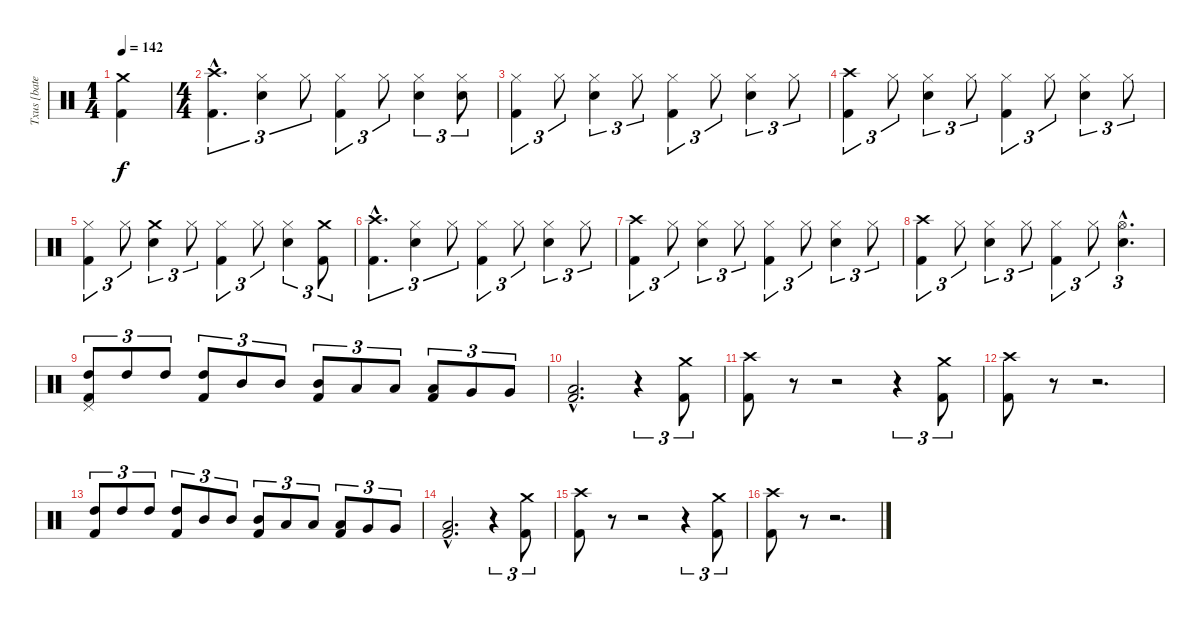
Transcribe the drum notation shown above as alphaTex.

\track ("Txus [bateria]" "Txus [bate") {instrument percussion}
\staff {score}
\articulation defaults
\ts (1 4)
\tempo 142
\clef neutral
\ks c
("Crash medium (hit)" "Kick (hit) 2").4{dy f} |
\ts (4 4)
("Crash high (hit)"{hac} "Kick (hit) 2"{hac}).4{d tu (3 2)} ("Hi-Hat (closed)" "Snare (hit) 2").4{tu (3 2)} "Hi-Hat (closed)".8{tu (3 2)} ("Hi-Hat (closed)" "Kick (hit) 2").4{tu (3 2)} "Hi-Hat (closed)".8{tu (3 2)} ("Hi-Hat (closed)" "Snare (hit) 2").4{tu (3 2)} ("Hi-Hat (closed)" "Snare (hit) 2").8{tu (3 2)} |
("Hi-Hat (closed)" "Kick (hit) 2").4{tu (3 2)} "Hi-Hat (closed)".8{tu (3 2)} ("Hi-Hat (closed)" "Snare (hit) 2").4{tu (3 2)} "Hi-Hat (closed)".8{tu (3 2)} ("Hi-Hat (closed)" "Kick (hit) 2").4{tu (3 2)} "Hi-Hat (closed)".8{tu (3 2)} ("Hi-Hat (closed)" "Snare (hit) 2").4{tu (3 2)} "Hi-Hat (closed)".8{tu (3 2)} |
("Crash high (hit)" "Kick (hit) 2").4{tu (3 2)} "Hi-Hat (closed)".8{tu (3 2)} ("Hi-Hat (closed)" "Snare (hit) 2").4{tu (3 2)} "Hi-Hat (closed)".8{tu (3 2)} ("Hi-Hat (closed)" "Kick (hit) 2").4{tu (3 2)} "Hi-Hat (closed)".8{tu (3 2)} ("Hi-Hat (closed)" "Snare (hit) 2").4{tu (3 2)} "Hi-Hat (closed)".8{tu (3 2)} |
("Hi-Hat (closed)" "Kick (hit) 2").4{tu (3 2)} "Hi-Hat (closed)".8{tu (3 2)} ("Crash medium (hit)" "Snare (hit) 2").4{tu (3 2)} "Hi-Hat (closed)".8{tu (3 2)} ("Hi-Hat (closed)" "Kick (hit) 2").4{tu (3 2)} "Hi-Hat (closed)".8{tu (3 2)} ("Hi-Hat (closed)" "Snare (hit) 2").4{tu (3 2)} ("Crash medium (hit)" "Kick (hit) 2").8{tu (3 2)} |
("Crash high (hit)"{hac} "Kick (hit) 2"{hac}).4{d tu (3 2)} ("Hi-Hat (closed)" "Snare (hit) 2").4{tu (3 2)} "Hi-Hat (closed)".8{tu (3 2)} ("Hi-Hat (closed)" "Kick (hit) 2").4{tu (3 2)} "Hi-Hat (closed)".8{tu (3 2)} ("Hi-Hat (closed)" "Snare (hit) 2").4{tu (3 2)} "Hi-Hat (closed)".8{tu (3 2)} |
("Crash high (hit)" "Kick (hit) 2").4{tu (3 2)} "Hi-Hat (closed)".8{tu (3 2)} ("Hi-Hat (closed)" "Snare (hit) 2").4{tu (3 2)} "Hi-Hat (closed)".8{tu (3 2)} ("Hi-Hat (closed)" "Kick (hit) 2").4{tu (3 2)} "Hi-Hat (closed)".8{tu (3 2)} ("Hi-Hat (closed)" "Snare (hit) 2").4{tu (3 2)} "Hi-Hat (closed)".8{tu (3 2)} |
("Crash high (hit)" "Kick (hit) 2").4{tu (3 2)} "Hi-Hat (closed)".8{tu (3 2)} ("Hi-Hat (closed)" "Snare (hit) 2").4{tu (3 2)} "Hi-Hat (closed)".8{tu (3 2)} ("Hi-Hat (closed)" "Kick (hit) 2").4{tu (3 2)} "Hi-Hat (closed)".8{tu (3 2)} ("Hi-Hat (open)"{hac} "Snare (hit) 2"{hac}).4{d tu (3 2)} |
("Pedal Hi-Hat (hit)" "High Tom (hit)" "Kick (hit) 2").8{tu (3 2)} "High Tom (hit)".8{tu (3 2)} "High Tom (hit)".8{tu (3 2)} ("High Tom (hit)" "Kick (hit) 2").8{tu (3 2)} "Mid Tom (hit)".8{tu (3 2)} "Mid Tom (hit)".8{tu (3 2)} ("Mid Tom (hit)" "Kick (hit) 2").8{tu (3 2)} "Low Tom (hit)".8{tu (3 2)} "Low Tom (hit)".8{tu (3 2)} ("Low Tom (hit)" "Kick (hit) 2").8{tu (3 2)} "Very Low Tom (hit)".8{tu (3 2)} "Very Low Tom (hit)".8{tu (3 2)} |
("Low Floor Tom (hit)"{hac} "Kick (hit) 2"{hac}).2{d} r.4{tu (3 2)} ("Crash medium (hit)" "Kick (hit) 2").8{tu (3 2)} |
("Crash high (hit)" "Kick (hit) 2").8 r.8{volume 0} r.2 r.4{tu (3 2)} ("Crash medium (hit)" "Kick (hit) 2").8{tu (3 2) volume 13} |
("Crash high (hit)" "Kick (hit) 2").8 r.8{volume 0} r.2{d} |
("High Tom (hit)" "Kick (hit) 2").8{tu (3 2) volume 13} "High Tom (hit)".8{tu (3 2)} "High Tom (hit)".8{tu (3 2)} ("High Tom (hit)" "Kick (hit) 2").8{tu (3 2)} "Mid Tom (hit)".8{tu (3 2)} "Mid Tom (hit)".8{tu (3 2)} ("Mid Tom (hit)" "Kick (hit) 2").8{tu (3 2)} "Low Tom (hit)".8{tu (3 2)} "Low Tom (hit)".8{tu (3 2)} ("Low Tom (hit)" "Kick (hit) 2").8{tu (3 2)} "Very Low Tom (hit)".8{tu (3 2)} "Very Low Tom (hit)".8{tu (3 2)} |
("Low Floor Tom (hit)"{hac} "Kick (hit) 2"{hac}).2{d} r.4{tu (3 2)} ("Crash medium (hit)" "Kick (hit) 2").8{tu (3 2)} |
("Crash high (hit)" "Kick (hit) 2").8 r.8{volume 0} r.2 r.4{tu (3 2)} ("Crash medium (hit)" "Kick (hit) 2").8{tu (3 2) volume 13} |
("Crash high (hit)" "Kick (hit) 2").8 r.8{volume 0} r.2{d}
